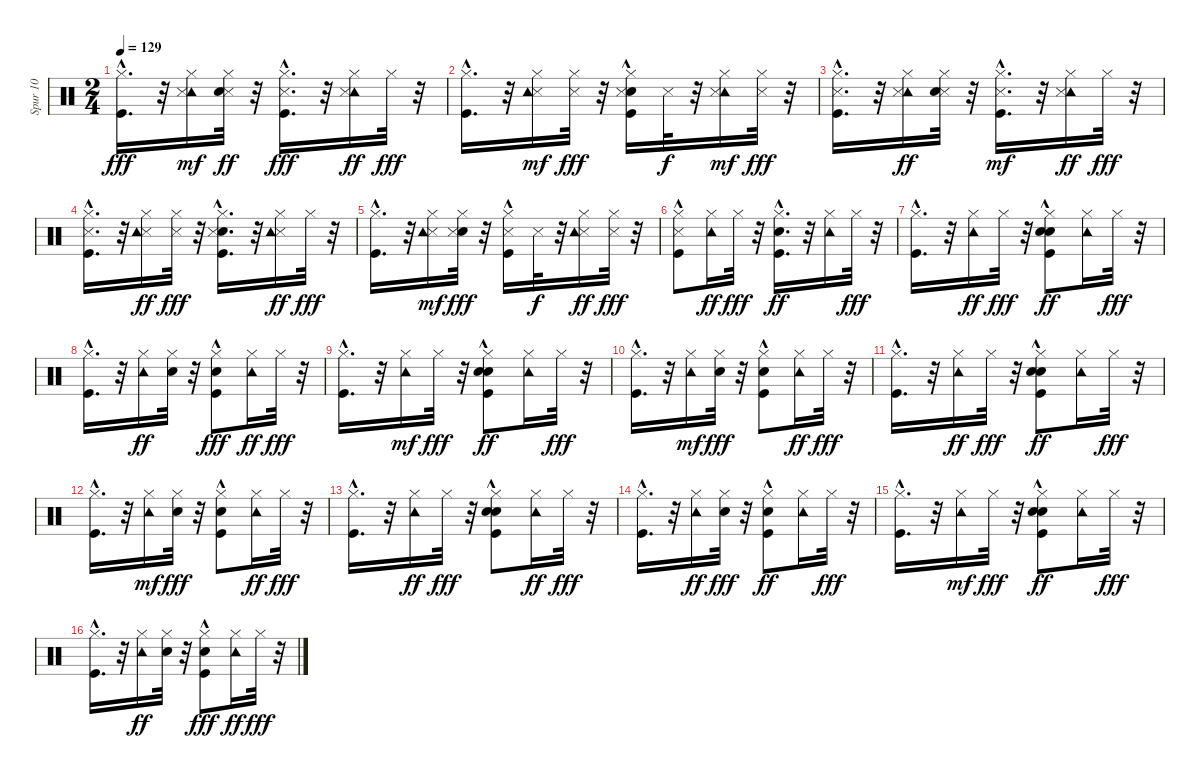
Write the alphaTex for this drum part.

\track ("Spur 10" "Spur 10") {instrument percussion}
\staff {score}
\articulation defaults
\ts (2 4)
\tempo 129
\clef neutral
\ks c
("Hi-Hat (closed)" "Kick (hit)"{hac}).16{d dy fff} r.32 ("Hi-Hat (closed)" "Tambourine (hit)" "Snare (side stick) 3").16{dy mf} ("Hi-Hat (closed)" "Snare (side stick) 3" "Snare (hit) 2").32{dy ff} r.32 ("Kick (hit)"{hac} "Snare (side stick) 3" "Hi-Hat (closed)").16{d dy fff} r.32 ("Tambourine (hit)" "Snare (side stick) 3" "Hi-Hat (closed)").16{dy ff} "Hi-Hat (closed)".32{dy fff} r.32 |
("Kick (hit)"{hac} "Hi-Hat (closed)").16{d} r.32 ("Hi-Hat (closed)" "Snare (side stick) 3" "Tambourine (hit)").16{dy mf} ("Hi-Hat (closed)" "Snare (side stick) 3").32{dy fff} r.32 ("Snare (hit) 2" "Snare (side stick) 3" "Hi-Hat (closed)" "Kick (hit)"{hac}).16 "Snare (side stick) 3".32{dy f} r.32 ("Tambourine (hit)" "Hi-Hat (closed)" "Snare (side stick) 3").16{dy mf} ("Snare (side stick) 3" "Hi-Hat (closed)").32{dy fff} r.32 |
("Kick (hit)"{hac} "Snare (side stick) 3" "Hi-Hat (closed)").16{d} r.32 ("Tambourine (hit)" "Snare (side stick) 3" "Hi-Hat (closed)").16{dy ff} ("Snare (side stick) 3" "Hi-Hat (closed)" "Snare (hit) 2").32 r.32 ("Kick (hit)"{hac} "Snare (side stick) 3" "Hi-Hat (closed)").16{d dy mf} r.32 ("Tambourine (hit)" "Hi-Hat (closed)" "Snare (side stick) 3").16{dy ff} "Hi-Hat (closed)".32{dy fff} r.32 |
("Hi-Hat (closed)" "Snare (side stick) 3" "Kick (hit)"{hac}).16{d} r.32 ("Snare (side stick) 3" "Tambourine (hit)" "Hi-Hat (closed)").16{dy ff} ("Hi-Hat (closed)" "Snare (side stick) 3").32{dy fff} r.32 ("Hi-Hat (closed)" "Snare (hit) 2" "Snare (side stick) 3" "Kick (hit)"{hac}).16{d} r.32 ("Hi-Hat (closed)" "Snare (side stick) 3" "Tambourine (hit)").16{dy ff} "Hi-Hat (closed)".32{dy fff} r.32 |
("Hi-Hat (closed)" "Kick (hit)"{hac}).16{d} r.32 ("Snare (side stick) 3" "Hi-Hat (closed)" "Tambourine (hit)").16{dy mf} ("Snare (hit) 2" "Snare (side stick) 3" "Hi-Hat (closed)").32{dy fff} r.32 ("Hi-Hat (closed)" "Snare (side stick) 3" "Kick (hit)"{hac}).16 "Snare (side stick) 3".32{dy f} r.32 ("Hi-Hat (closed)" "Snare (side stick) 3" "Tambourine (hit)").16{dy ff} ("Hi-Hat (closed)" "Snare (side stick) 3").32{dy fff} r.32 |
("Kick (hit)"{hac} "Snare (side stick) 3" "Hi-Hat (closed)").8 ("Tambourine (hit)" "Hi-Hat (closed)").16{dy ff} "Hi-Hat (closed)".32{dy fff} r.32 ("Hi-Hat (closed)" "Kick (hit)"{hac} "Snare (hit) 2").16{d dy ff} r.32 ("Tambourine (hit)" "Hi-Hat (closed)").16 "Hi-Hat (closed)".32{dy fff} r.32 |
("Kick (hit)"{hac} "Hi-Hat (closed)").16{d} r.32 ("Tambourine (hit)" "Hi-Hat (closed)").16{dy ff} "Hi-Hat (closed)".32{dy fff} r.32 ("Hand Clap (hit)" "Kick (hit)"{hac} "Hi-Hat (closed)" "Snare (hit) 2").8{dy ff} ("Hi-Hat (closed)" "Tambourine (hit)").16 "Hi-Hat (closed)".32{dy fff} r.32 |
("Hi-Hat (closed)" "Kick (hit)"{hac}).16{d} r.32 ("Tambourine (hit)" "Hi-Hat (closed)").16{dy ff} ("Hi-Hat (closed)" "Snare (hit) 2").32 r.32 ("Hand Clap (hit)" "Hi-Hat (closed)" "Kick (hit)"{hac}).8{dy fff} ("Hi-Hat (closed)" "Tambourine (hit)").16{dy ff} "Hi-Hat (closed)".32{dy fff} r.32 |
("Kick (hit)"{hac} "Hi-Hat (closed)").16{d} r.32 ("Hi-Hat (closed)" "Tambourine (hit)").16{dy mf} "Hi-Hat (closed)".32{dy fff} r.32 ("Kick (hit)"{hac} "Snare (hit) 2" "Hi-Hat (closed)" "Hand Clap (hit)").8{dy ff} ("Tambourine (hit)" "Hi-Hat (closed)").16 "Hi-Hat (closed)".32{dy fff} r.32 |
("Kick (hit)"{hac} "Hi-Hat (closed)").16{d} r.32 ("Hi-Hat (closed)" "Tambourine (hit)").16{dy mf} ("Snare (hit) 2" "Hi-Hat (closed)").32{dy fff} r.32 ("Hand Clap (hit)" "Kick (hit)"{hac} "Hi-Hat (closed)").8 ("Tambourine (hit)" "Hi-Hat (closed)").16{dy ff} "Hi-Hat (closed)".32{dy fff} r.32 |
("Kick (hit)"{hac} "Hi-Hat (closed)").16{d} r.32 ("Tambourine (hit)" "Hi-Hat (closed)").16{dy ff} "Hi-Hat (closed)".32{dy fff} r.32 ("Hi-Hat (closed)" "Kick (hit)"{hac} "Snare (hit) 2" "Hand Clap (hit)").8{dy ff} ("Tambourine (hit)" "Hi-Hat (closed)").16 "Hi-Hat (closed)".32{dy fff} r.32 |
("Kick (hit)"{hac} "Hi-Hat (closed)").16{d} r.32 ("Hi-Hat (closed)" "Tambourine (hit)").16{dy mf} ("Snare (hit) 2" "Hi-Hat (closed)").32{dy fff} r.32 ("Hand Clap (hit)" "Kick (hit)"{hac} "Hi-Hat (closed)").8 ("Hi-Hat (closed)" "Tambourine (hit)").16{dy ff} "Hi-Hat (closed)".32{dy fff} r.32 |
("Hi-Hat (closed)" "Kick (hit)"{hac}).16{d} r.32 ("Tambourine (hit)" "Hi-Hat (closed)").16{dy ff} "Hi-Hat (closed)".32{dy fff} r.32 ("Snare (hit) 2" "Hand Clap (hit)"{hac} "Kick (hit)"{hac} "Hi-Hat (closed)").8 ("Tambourine (hit)" "Hi-Hat (closed)").16{dy ff} "Hi-Hat (closed)".32{dy fff} r.32 |
("Kick (hit)"{hac} "Hi-Hat (closed)").16{d} r.32 ("Tambourine (hit)" "Hi-Hat (closed)").16{dy ff} ("Snare (hit) 2" "Hi-Hat (closed)").32{dy fff} r.32 ("Hi-Hat (closed)" "Kick (hit)"{hac} "Hand Clap (hit)").8{dy ff} ("Tambourine (hit)" "Hi-Hat (closed)").16 "Hi-Hat (closed)".32{dy fff} r.32 |
("Hi-Hat (closed)" "Kick (hit)"{hac}).16{d} r.32 ("Hi-Hat (closed)" "Tambourine (hit)").16{dy mf} "Hi-Hat (closed)".32{dy fff} r.32 ("Hand Clap (hit)" "Kick (hit)"{hac} "Snare (hit) 2" "Hi-Hat (closed)").8{dy ff} ("Tambourine (hit)" "Hi-Hat (closed)").16 "Hi-Hat (closed)".32{dy fff} r.32 |
("Kick (hit)"{hac} "Hi-Hat (closed)").16{d} r.32 ("Tambourine (hit)" "Hi-Hat (closed)").16{dy ff} ("Hi-Hat (closed)" "Snare (hit) 2").32 r.32 ("Hi-Hat (closed)" "Hand Clap (hit)"{hac} "Kick (hit)"{hac}).8{dy fff} ("Hi-Hat (closed)" "Tambourine (hit)").16{dy ff} "Hi-Hat (closed)".32{dy fff} r.32
